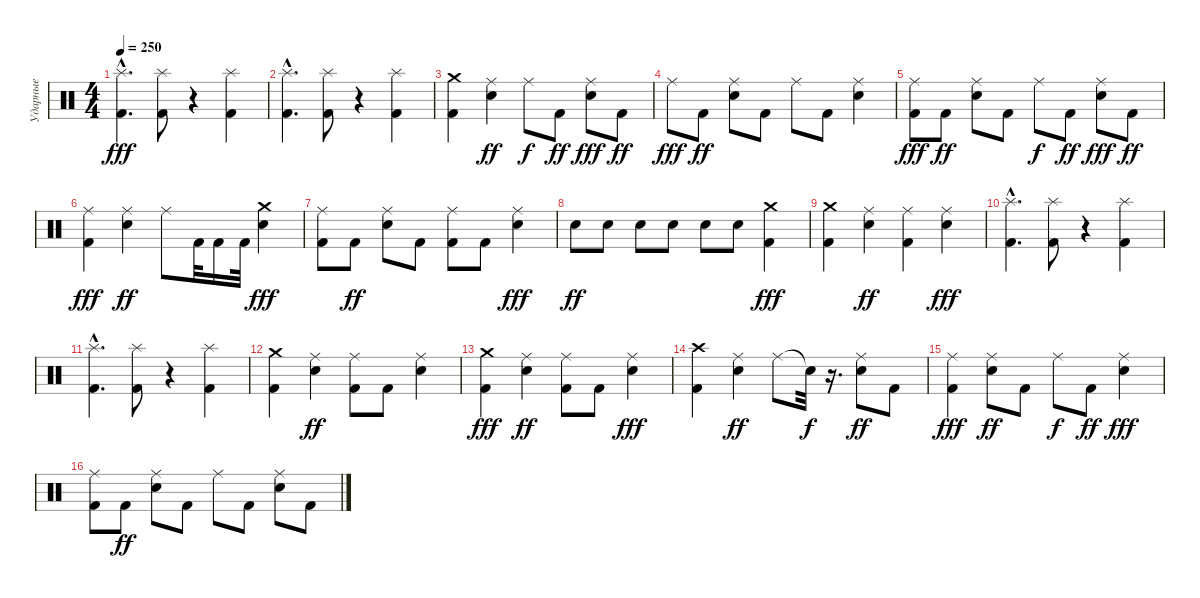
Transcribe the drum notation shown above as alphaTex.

\track ("Ударные" "Ударные") {instrument percussion}
\staff {score}
\articulation defaults
\ts (4 4)
\tempo 250
\clef neutral
\ks c
("Kick (hit) 2"{hac} "Splash (hit)"{hac}).4{d dy fff} ("Kick (hit) 2" "Splash (hit)").8 r.4 ("Kick (hit) 2" "Splash (hit)").4 |
("Kick (hit) 2"{hac} "Splash (hit)"{hac}).4{d} ("Kick (hit) 2" "Splash (hit)").8 r.4 ("Kick (hit) 2" "Splash (hit)").4 |
("Kick (hit) 2" "Crash medium (hit)").4 ("Electric Snare (hit)" "Ride (middle)").4{dy ff} "Ride (middle)".8{dy f} "Kick (hit) 2".8{dy ff} ("Electric Snare (hit)" "Ride (middle)").8{dy fff} "Kick (hit) 2".8{dy ff} |
"Ride (middle)".8{dy fff} "Kick (hit) 2".8{dy ff} ("Electric Snare (hit)" "Ride (middle)").8 "Kick (hit) 2".8 "Ride (middle)".8 "Kick (hit) 2".8 ("Electric Snare (hit)" "Ride (middle)").4 |
("Kick (hit) 2" "Ride (middle)").8{dy fff} "Kick (hit) 2".8{dy ff} ("Electric Snare (hit)" "Ride (middle)").8 "Kick (hit) 2".8 "Ride (middle)".8{dy f} "Kick (hit) 2".8{dy ff} ("Electric Snare (hit)" "Ride (middle)").8{dy fff} "Kick (hit) 2".8{dy ff} |
("Kick (hit) 2" "Ride (middle)").4{dy fff} ("Electric Snare (hit)" "Ride (middle)").4{dy ff} "Ride (middle)".8 "Kick (hit) 2".32 "Kick (hit) 2".16 "Kick (hit) 2".32 ("Electric Snare (hit)" "Crash medium (hit)").4{dy fff} |
("Kick (hit) 2" "Ride (middle)").8 "Kick (hit) 2".8{dy ff} ("Electric Snare (hit)" "Ride (middle)").8 "Kick (hit) 2".8 ("Kick (hit) 2" "Ride (middle)").8 "Kick (hit) 2".8 ("Electric Snare (hit)" "Ride (middle)").4{dy fff} |
"Electric Snare (hit)".8{dy ff} "Electric Snare (hit)".8 "Electric Snare (hit)".8 "Electric Snare (hit)".8 "Electric Snare (hit)".8 "Electric Snare (hit)".8 ("Kick (hit) 2" "Crash medium (hit)").4{dy fff} |
("Kick (hit) 2" "Crash medium (hit)").4 ("Electric Snare (hit)" "Ride (middle)").4{dy ff} ("Kick (hit) 2" "Ride (middle)").4 ("Electric Snare (hit)" "Ride (middle)").4{dy fff} |
("Kick (hit) 2"{hac} "Splash (hit)"{hac}).4{d} ("Kick (hit) 2" "Splash (hit)").8 r.4 ("Kick (hit) 2" "Splash (hit)").4 |
("Kick (hit) 2"{hac} "Splash (hit)"{hac}).4{d} ("Kick (hit) 2" "Splash (hit)").8 r.4 ("Kick (hit) 2" "Splash (hit)").4 |
("Kick (hit) 2" "Crash medium (hit)").4 ("Electric Snare (hit)" "Ride (middle)").4{dy ff} ("Kick (hit) 2" "Ride (middle)").8 "Kick (hit) 2".8 ("Electric Snare (hit)" "Ride (middle)").4 |
("Kick (hit) 2" "Crash medium (hit)").4{dy fff} ("Electric Snare (hit)" "Ride (middle)").4{dy ff} ("Kick (hit) 2" "Ride (middle)").8 "Kick (hit) 2".8 ("Electric Snare (hit)" "Ride (middle)").4{dy fff} |
("Kick (hit) 2" "Crash high (hit)").4 ("Electric Snare (hit)" "Ride (middle)").4{dy ff} "Ride (middle)".8 "Snare (hit)"{t}.32{dy f} r.16{d} ("Electric Snare (hit)" "Ride (middle)").8{dy ff} "Kick (hit) 2".8 |
("Kick (hit) 2" "Ride (middle)").4{dy fff} ("Electric Snare (hit)" "Ride (middle)").8{dy ff} "Kick (hit) 2".8 "Ride (middle)".8{dy f} "Kick (hit) 2".8{dy ff} ("Electric Snare (hit)" "Ride (middle)").4{dy fff} |
("Kick (hit) 2" "Ride (middle)").8 "Kick (hit) 2".8{dy ff} ("Electric Snare (hit)" "Ride (middle)").8 "Kick (hit) 2".8 "Ride (middle)".8 "Kick (hit) 2".8 ("Electric Snare (hit)" "Ride (middle)").8 "Kick (hit) 2".8
